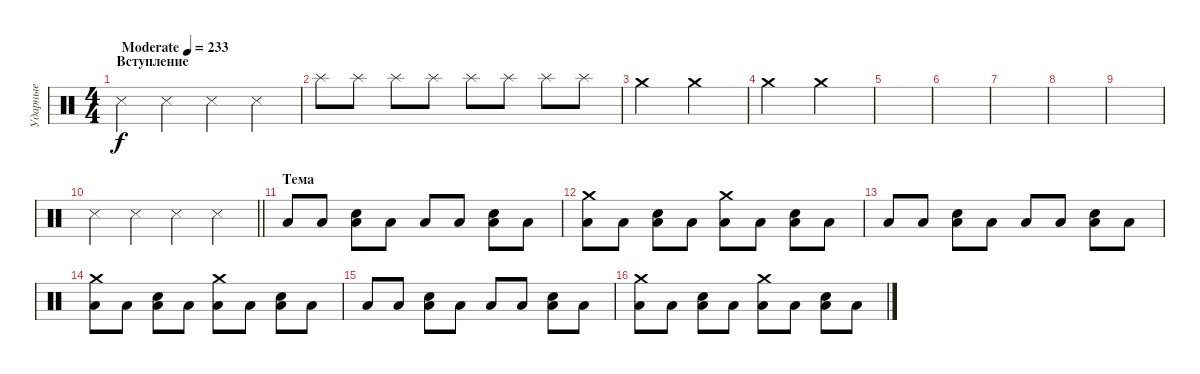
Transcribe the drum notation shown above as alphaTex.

\track ("Ударные" "Ударные") {instrument percussion}
\staff {score}
\articulation defaults
\ts (4 4)
\section ("" "Вступление")
\tempo (233 "Moderate")
\clef neutral
\ks c "Snare (side stick) 3".4{dy f} "Snare (side stick) 3".4 "Snare (side stick) 3".4 "Snare (side stick) 3".4
|
"Splash (hit)".8 "Splash (hit)".8 "Splash (hit)".8 "Splash (hit)".8 "Splash (hit)".8 "Splash (hit)".8 "Splash (hit)".8 "Splash (hit)".8 |
"Crash medium (hit)".2 "Crash medium (hit)".2 |
"Crash medium (hit)".2 "Crash medium (hit)".2 |
|
|
|
|
|
\barLineRight lightlight "Snare (side stick) 3".4 "Snare (side stick) 3".4 "Snare (side stick) 3".4 "Snare (side stick) 3".4
|
\section ("" "Тема")
"Low Tom (hit)".8 "Low Tom (hit)".8 ("Electric Snare (hit)" "Low Tom (hit)").8 "Low Tom (hit)".8 "Low Tom (hit)".8 "Low Tom (hit)".8 ("Electric Snare (hit)" "Low Tom (hit)").8 "Low Tom (hit)".8 |
("Crash medium (hit)" "Low Tom (hit)").8 "Low Tom (hit)".8 ("Electric Snare (hit)" "Low Tom (hit)").8 "Low Tom (hit)".8 ("Crash medium (hit)" "Low Tom (hit)").8 "Low Tom (hit)".8 ("Electric Snare (hit)" "Low Tom (hit)").8 "Low Tom (hit)".8 |
"Low Tom (hit)".8 "Low Tom (hit)".8 ("Electric Snare (hit)" "Low Tom (hit)").8 "Low Tom (hit)".8 "Low Tom (hit)".8 "Low Tom (hit)".8 ("Electric Snare (hit)" "Low Tom (hit)").8 "Low Tom (hit)".8 |
("Crash medium (hit)" "Low Tom (hit)").8 "Low Tom (hit)".8 ("Electric Snare (hit)" "Low Tom (hit)").8 "Low Tom (hit)".8 ("Crash medium (hit)" "Low Tom (hit)").8 "Low Tom (hit)".8 ("Electric Snare (hit)" "Low Tom (hit)").8 "Low Tom (hit)".8 |
"Low Tom (hit)".8 "Low Tom (hit)".8 ("Electric Snare (hit)" "Low Tom (hit)").8 "Low Tom (hit)".8 "Low Tom (hit)".8 "Low Tom (hit)".8 ("Electric Snare (hit)" "Low Tom (hit)").8 "Low Tom (hit)".8 |
("Crash medium (hit)" "Low Tom (hit)").8 "Low Tom (hit)".8 ("Electric Snare (hit)" "Low Tom (hit)").8 "Low Tom (hit)".8 ("Crash medium (hit)" "Low Tom (hit)").8 "Low Tom (hit)".8 ("Electric Snare (hit)" "Low Tom (hit)").8 "Low Tom (hit)".8
